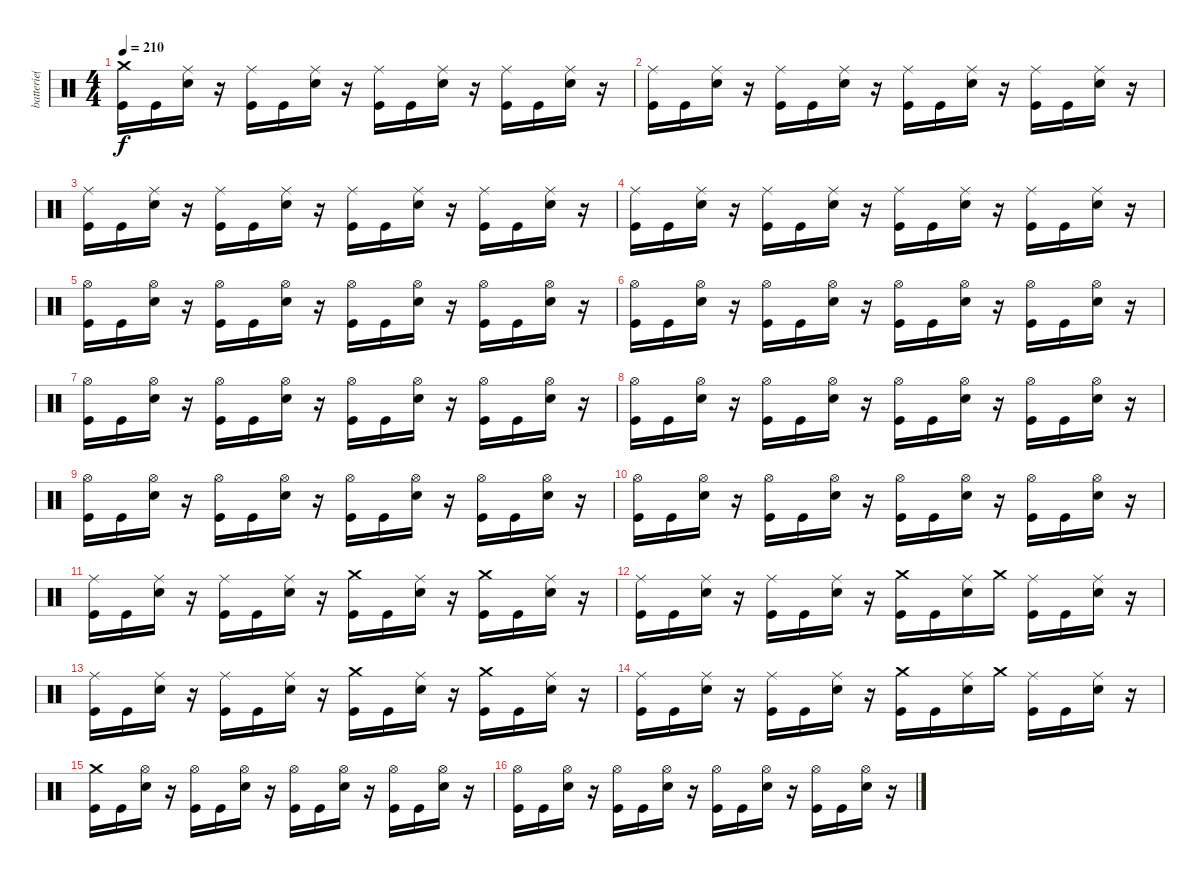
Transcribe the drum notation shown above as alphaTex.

\track ("batterie( Rob )" "batterie( ") {instrument percussion}
\staff {score}
\articulation defaults
\ts (4 4)
\tempo 210
\clef neutral
\ks c
("Crash medium (hit)" "Kick (hit)").16{dy f} "Kick (hit)".16 ("Ride (middle)" "Snare (hit) 2").16 r.16 ("Ride (middle)" "Kick (hit)").16 "Kick (hit)".16 ("Ride (middle)" "Snare (hit) 2").16 r.16 ("Ride (middle)" "Kick (hit)").16 "Kick (hit)".16 ("Ride (middle)" "Snare (hit) 2").16 r.16 ("Ride (middle)" "Kick (hit)").16 "Kick (hit)".16 ("Ride (middle)" "Snare (hit) 2").16 r.16 |
("Ride (middle)" "Kick (hit)").16 "Kick (hit)".16 ("Ride (middle)" "Snare (hit) 2").16 r.16 ("Ride (middle)" "Kick (hit)").16 "Kick (hit)".16 ("Ride (middle)" "Snare (hit) 2").16 r.16 ("Ride (middle)" "Kick (hit)").16 "Kick (hit)".16 ("Ride (middle)" "Snare (hit) 2").16 r.16 ("Ride (middle)" "Kick (hit)").16 "Kick (hit)".16 ("Ride (middle)" "Snare (hit) 2").16 r.16 |
("Ride (middle)" "Kick (hit)").16 "Kick (hit)".16 ("Ride (middle)" "Snare (hit) 2").16 r.16 ("Ride (middle)" "Kick (hit)").16 "Kick (hit)".16 ("Ride (middle)" "Snare (hit) 2").16 r.16 ("Ride (middle)" "Kick (hit)").16 "Kick (hit)".16 ("Ride (middle)" "Snare (hit) 2").16 r.16 ("Ride (middle)" "Kick (hit)").16 "Kick (hit)".16 ("Ride (middle)" "Snare (hit) 2").16 r.16 |
("Ride (middle)" "Kick (hit)").16 "Kick (hit)".16 ("Ride (middle)" "Snare (hit) 2").16 r.16 ("Ride (middle)" "Kick (hit)").16 "Kick (hit)".16 ("Ride (middle)" "Snare (hit) 2").16 r.16 ("Ride (middle)" "Kick (hit)").16 "Kick (hit)".16 ("Ride (middle)" "Snare (hit) 2").16 r.16 ("Ride (middle)" "Kick (hit)").16 "Kick (hit)".16 ("Ride (middle)" "Snare (hit) 2").16 r.16 |
("Hi-Hat (open)" "Kick (hit)").16 "Kick (hit)".16 ("Hi-Hat (open)" "Snare (hit) 2").16 r.16 ("Hi-Hat (open)" "Kick (hit)").16 "Kick (hit)".16 ("Hi-Hat (open)" "Snare (hit) 2").16 r.16 ("Hi-Hat (open)" "Kick (hit)").16 "Kick (hit)".16 ("Hi-Hat (open)" "Snare (hit) 2").16 r.16 ("Hi-Hat (open)" "Kick (hit)").16 "Kick (hit)".16 ("Hi-Hat (open)" "Snare (hit) 2").16 r.16 |
("Hi-Hat (open)" "Kick (hit)").16 "Kick (hit)".16 ("Hi-Hat (open)" "Snare (hit) 2").16 r.16 ("Hi-Hat (open)" "Kick (hit)").16 "Kick (hit)".16 ("Hi-Hat (open)" "Snare (hit) 2").16 r.16 ("Hi-Hat (open)" "Kick (hit)").16 "Kick (hit)".16 ("Hi-Hat (open)" "Snare (hit) 2").16 r.16 ("Hi-Hat (open)" "Kick (hit)").16 "Kick (hit)".16 ("Hi-Hat (open)" "Snare (hit) 2").16 r.16 |
("Hi-Hat (open)" "Kick (hit)").16 "Kick (hit)".16 ("Hi-Hat (open)" "Snare (hit) 2").16 r.16 ("Hi-Hat (open)" "Kick (hit)").16 "Kick (hit)".16 ("Hi-Hat (open)" "Snare (hit) 2").16 r.16 ("Hi-Hat (open)" "Kick (hit)").16 "Kick (hit)".16 ("Hi-Hat (open)" "Snare (hit) 2").16 r.16 ("Hi-Hat (open)" "Kick (hit)").16 "Kick (hit)".16 ("Hi-Hat (open)" "Snare (hit) 2").16 r.16 |
("Hi-Hat (open)" "Kick (hit)").16 "Kick (hit)".16 ("Hi-Hat (open)" "Snare (hit) 2").16 r.16 ("Hi-Hat (open)" "Kick (hit)").16 "Kick (hit)".16 ("Hi-Hat (open)" "Snare (hit) 2").16 r.16 ("Hi-Hat (open)" "Kick (hit)").16 "Kick (hit)".16 ("Hi-Hat (open)" "Snare (hit) 2").16 r.16 ("Hi-Hat (open)" "Kick (hit)").16 "Kick (hit)".16 ("Hi-Hat (open)" "Snare (hit) 2").16 r.16 |
("Hi-Hat (open)" "Kick (hit)").16 "Kick (hit)".16 ("Hi-Hat (open)" "Snare (hit) 2").16 r.16 ("Hi-Hat (open)" "Kick (hit)").16 "Kick (hit)".16 ("Hi-Hat (open)" "Snare (hit) 2").16 r.16 ("Hi-Hat (open)" "Kick (hit)").16 "Kick (hit)".16 ("Hi-Hat (open)" "Snare (hit) 2").16 r.16 ("Hi-Hat (open)" "Kick (hit)").16 "Kick (hit)".16 ("Hi-Hat (open)" "Snare (hit) 2").16 r.16 |
("Hi-Hat (open)" "Kick (hit)").16 "Kick (hit)".16 ("Hi-Hat (open)" "Snare (hit) 2").16 r.16 ("Hi-Hat (open)" "Kick (hit)").16 "Kick (hit)".16 ("Hi-Hat (open)" "Snare (hit) 2").16 r.16 ("Hi-Hat (open)" "Kick (hit)").16 "Kick (hit)".16 ("Hi-Hat (open)" "Snare (hit) 2").16 r.16 ("Hi-Hat (open)" "Kick (hit)").16 "Kick (hit)".16 ("Hi-Hat (open)" "Snare (hit) 2").16 r.16 |
("Ride (middle)" "Kick (hit)").16 "Kick (hit)".16 ("Ride (middle)" "Snare (hit) 2").16 r.16 ("Ride (middle)" "Kick (hit)").16 "Kick (hit)".16 ("Ride (middle)" "Snare (hit) 2").16 r.16 ("Crash medium (hit)" "Kick (hit)").16 "Kick (hit)".16 ("Ride (middle)" "Snare (hit) 2").16 r.16 ("Crash medium (hit)" "Kick (hit)").16 "Kick (hit)".16 ("Ride (middle)" "Snare (hit) 2").16 r.16 |
("Ride (middle)" "Kick (hit)").16 "Kick (hit)".16 ("Ride (middle)" "Snare (hit) 2").16 r.16 ("Ride (middle)" "Kick (hit)").16 "Kick (hit)".16 ("Ride (middle)" "Snare (hit) 2").16 r.16 ("Crash medium (hit)" "Kick (hit)").16 "Kick (hit)".16 ("Ride (middle)" "Snare (hit) 2").16 "Crash medium (hit)".16 ("Ride (middle)" "Kick (hit)").16 "Kick (hit)".16 ("Ride (middle)" "Snare (hit) 2").16 r.16 |
("Ride (middle)" "Kick (hit)").16 "Kick (hit)".16 ("Ride (middle)" "Snare (hit) 2").16 r.16 ("Ride (middle)" "Kick (hit)").16 "Kick (hit)".16 ("Ride (middle)" "Snare (hit) 2").16 r.16 ("Crash medium (hit)" "Kick (hit)").16 "Kick (hit)".16 ("Ride (middle)" "Snare (hit) 2").16 r.16 ("Crash medium (hit)" "Kick (hit)").16 "Kick (hit)".16 ("Ride (middle)" "Snare (hit) 2").16 r.16 |
("Ride (middle)" "Kick (hit)").16 "Kick (hit)".16 ("Ride (middle)" "Snare (hit) 2").16 r.16 ("Ride (middle)" "Kick (hit)").16 "Kick (hit)".16 ("Ride (middle)" "Snare (hit) 2").16 r.16 ("Crash medium (hit)" "Kick (hit)").16 "Kick (hit)".16 ("Ride (middle)" "Snare (hit) 2").16 "Crash medium (hit)".16 ("Ride (middle)" "Kick (hit)").16 "Kick (hit)".16 ("Ride (middle)" "Snare (hit) 2").16 r.16 |
("Crash medium (hit)" "Kick (hit)").16 "Kick (hit)".16 ("Hi-Hat (open)" "Snare (hit) 2").16 r.16 ("Hi-Hat (open)" "Kick (hit)").16 "Kick (hit)".16 ("Hi-Hat (open)" "Snare (hit) 2").16 r.16 ("Hi-Hat (open)" "Kick (hit)").16 "Kick (hit)".16 ("Hi-Hat (open)" "Snare (hit) 2").16 r.16 ("Hi-Hat (open)" "Kick (hit)").16 "Kick (hit)".16 ("Hi-Hat (open)" "Snare (hit) 2").16 r.16 |
("Hi-Hat (open)" "Kick (hit)").16 "Kick (hit)".16 ("Hi-Hat (open)" "Snare (hit) 2").16 r.16 ("Hi-Hat (open)" "Kick (hit)").16 "Kick (hit)".16 ("Hi-Hat (open)" "Snare (hit) 2").16 r.16 ("Hi-Hat (open)" "Kick (hit)").16 "Kick (hit)".16 ("Hi-Hat (open)" "Snare (hit) 2").16 r.16 ("Hi-Hat (open)" "Kick (hit)").16 "Kick (hit)".16 ("Hi-Hat (open)" "Snare (hit) 2").16 r.16
